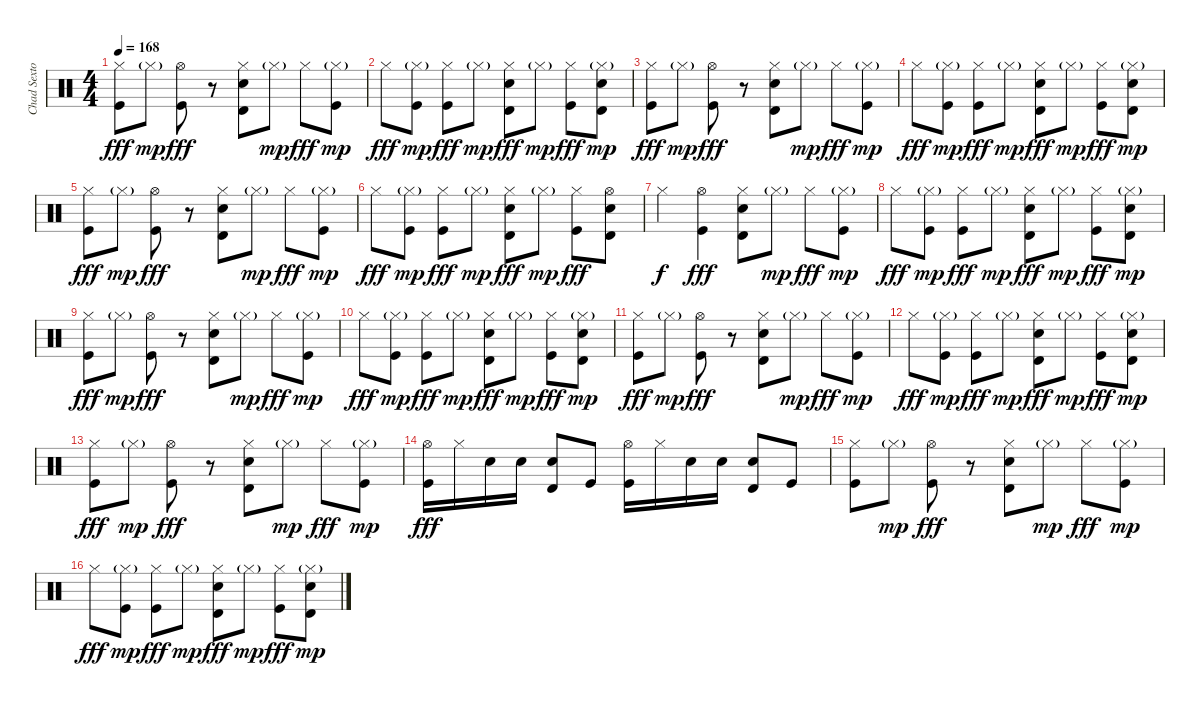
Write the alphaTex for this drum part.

\track ("Chad Sexton" "Chad Sexto") {instrument percussion}
\staff {score}
\articulation defaults
\ts (4 4)
\tempo 168
\clef neutral
\ks c
("Kick (hit)" "Hi-Hat (closed)").8{dy fff} "Hi-Hat (closed)"{g}.8{dy mp} ("Kick (hit)" "Hi-Hat (open)").8{dy fff} r.8 ("Electric Snare (hit)" "Timbale high (hit)" "Hi-Hat (closed)").8 "Hi-Hat (closed)"{g}.8{dy mp} "Hi-Hat (closed)".8{dy fff} ("Kick (hit)" "Hi-Hat (closed)"{g}).8{dy mp} |
"Hi-Hat (closed)".8{dy fff} ("Kick (hit)" "Hi-Hat (closed)"{g}).8{dy mp} ("Kick (hit)" "Hi-Hat (closed)").8{dy fff} "Hi-Hat (closed)"{g}.8{dy mp} ("Electric Snare (hit)" "Timbale high (hit)" "Hi-Hat (closed)").8{dy fff} "Hi-Hat (closed)"{g}.8{dy mp} ("Kick (hit)" "Hi-Hat (closed)").8{dy fff} ("Electric Snare (hit)" "Timbale high (hit)" "Hi-Hat (closed)"{g}).8{dy mp} |
("Kick (hit)" "Hi-Hat (closed)").8{dy fff} "Hi-Hat (closed)"{g}.8{dy mp} ("Kick (hit)" "Hi-Hat (open)").8{dy fff} r.8 ("Electric Snare (hit)" "Timbale high (hit)" "Hi-Hat (closed)").8 "Hi-Hat (closed)"{g}.8{dy mp} "Hi-Hat (closed)".8{dy fff} ("Kick (hit)" "Hi-Hat (closed)"{g}).8{dy mp} |
"Hi-Hat (closed)".8{dy fff} ("Kick (hit)" "Hi-Hat (closed)"{g}).8{dy mp} ("Kick (hit)" "Hi-Hat (closed)").8{dy fff} "Hi-Hat (closed)"{g}.8{dy mp} ("Electric Snare (hit)" "Timbale high (hit)" "Hi-Hat (closed)").8{dy fff} "Hi-Hat (closed)"{g}.8{dy mp} ("Kick (hit)" "Hi-Hat (closed)").8{dy fff} ("Electric Snare (hit)" "Timbale high (hit)" "Hi-Hat (closed)"{g}).8{dy mp} |
("Kick (hit)" "Hi-Hat (closed)").8{dy fff} "Hi-Hat (closed)"{g}.8{dy mp} ("Kick (hit)" "Hi-Hat (open)").8{dy fff} r.8 ("Electric Snare (hit)" "Timbale high (hit)" "Hi-Hat (closed)").8 "Hi-Hat (closed)"{g}.8{dy mp} "Hi-Hat (closed)".8{dy fff} ("Kick (hit)" "Hi-Hat (closed)"{g}).8{dy mp} |
"Hi-Hat (closed)".8{dy fff} ("Kick (hit)" "Hi-Hat (closed)"{g}).8{dy mp} ("Kick (hit)" "Hi-Hat (closed)").8{dy fff} "Hi-Hat (closed)"{g}.8{dy mp} ("Electric Snare (hit)" "Timbale high (hit)" "Hi-Hat (closed)").8{dy fff} "Hi-Hat (closed)"{g}.8{dy mp} ("Kick (hit)" "Hi-Hat (closed)").8{dy fff} ("Electric Snare (hit)" "Timbale high (hit)" "Hi-Hat (open)").8 |
"Hi-Hat (closed)".4{dy f} ("Kick (hit)" "Hi-Hat (open)").4{dy fff} ("Electric Snare (hit)" "Timbale high (hit)" "Hi-Hat (closed)").8 "Hi-Hat (closed)"{g}.8{dy mp} "Hi-Hat (closed)".8{dy fff} ("Kick (hit)" "Hi-Hat (closed)"{g}).8{dy mp} |
"Hi-Hat (closed)".8{dy fff} ("Kick (hit)" "Hi-Hat (closed)"{g}).8{dy mp} ("Kick (hit)" "Hi-Hat (closed)").8{dy fff} "Hi-Hat (closed)"{g}.8{dy mp} ("Electric Snare (hit)" "Timbale high (hit)" "Hi-Hat (closed)").8{dy fff} "Hi-Hat (closed)"{g}.8{dy mp} ("Kick (hit)" "Hi-Hat (closed)").8{dy fff} ("Electric Snare (hit)" "Timbale high (hit)" "Hi-Hat (closed)"{g}).8{dy mp} |
("Kick (hit)" "Hi-Hat (closed)").8{dy fff} "Hi-Hat (closed)"{g}.8{dy mp} ("Kick (hit)" "Hi-Hat (open)").8{dy fff} r.8 ("Electric Snare (hit)" "Timbale high (hit)" "Hi-Hat (closed)").8 "Hi-Hat (closed)"{g}.8{dy mp} "Hi-Hat (closed)".8{dy fff} ("Kick (hit)" "Hi-Hat (closed)"{g}).8{dy mp} |
"Hi-Hat (closed)".8{dy fff} ("Kick (hit)" "Hi-Hat (closed)"{g}).8{dy mp} ("Kick (hit)" "Hi-Hat (closed)").8{dy fff} "Hi-Hat (closed)"{g}.8{dy mp} ("Electric Snare (hit)" "Timbale high (hit)" "Hi-Hat (closed)").8{dy fff} "Hi-Hat (closed)"{g}.8{dy mp} ("Kick (hit)" "Hi-Hat (closed)").8{dy fff} ("Electric Snare (hit)" "Timbale high (hit)" "Hi-Hat (closed)"{g}).8{dy mp} |
("Kick (hit)" "Hi-Hat (closed)").8{dy fff} "Hi-Hat (closed)"{g}.8{dy mp} ("Kick (hit)" "Hi-Hat (open)").8{dy fff} r.8 ("Electric Snare (hit)" "Timbale high (hit)" "Hi-Hat (closed)").8 "Hi-Hat (closed)"{g}.8{dy mp} "Hi-Hat (closed)".8{dy fff} ("Kick (hit)" "Hi-Hat (closed)"{g}).8{dy mp} |
"Hi-Hat (closed)".8{dy fff} ("Kick (hit)" "Hi-Hat (closed)"{g}).8{dy mp} ("Kick (hit)" "Hi-Hat (closed)").8{dy fff} "Hi-Hat (closed)"{g}.8{dy mp} ("Electric Snare (hit)" "Timbale high (hit)" "Hi-Hat (closed)").8{dy fff} "Hi-Hat (closed)"{g}.8{dy mp} ("Kick (hit)" "Hi-Hat (closed)").8{dy fff} ("Electric Snare (hit)" "Timbale high (hit)" "Hi-Hat (closed)"{g}).8{dy mp} |
("Kick (hit)" "Hi-Hat (closed)").8{dy fff} "Hi-Hat (closed)"{g}.8{dy mp} ("Kick (hit)" "Hi-Hat (open)").8{dy fff} r.8 ("Electric Snare (hit)" "Timbale high (hit)" "Hi-Hat (closed)").8 "Hi-Hat (closed)"{g}.8{dy mp} "Hi-Hat (closed)".8{dy fff} ("Kick (hit)" "Hi-Hat (closed)"{g}).8{dy mp} |
("Hi-Hat (open)" "Kick (hit)").16{dy fff} "Hi-Hat (closed)".16 "Electric Snare (hit)".16 "Electric Snare (hit)".16 ("Electric Snare (hit)" "Timbale high (hit)").8 "Kick (hit)".8 ("Hi-Hat (open)" "Kick (hit)").16 "Hi-Hat (closed)".16 "Electric Snare (hit)".16 "Electric Snare (hit)".16 ("Electric Snare (hit)" "Timbale high (hit)").8 "Kick (hit)".8 |
("Kick (hit)" "Hi-Hat (closed)").8 "Hi-Hat (closed)"{g}.8{dy mp} ("Kick (hit)" "Hi-Hat (open)").8{dy fff} r.8 ("Electric Snare (hit)" "Timbale high (hit)" "Hi-Hat (closed)").8 "Hi-Hat (closed)"{g}.8{dy mp} "Hi-Hat (closed)".8{dy fff} ("Kick (hit)" "Hi-Hat (closed)"{g}).8{dy mp} |
"Hi-Hat (closed)".8{dy fff} ("Kick (hit)" "Hi-Hat (closed)"{g}).8{dy mp} ("Kick (hit)" "Hi-Hat (closed)").8{dy fff} "Hi-Hat (closed)"{g}.8{dy mp} ("Electric Snare (hit)" "Timbale high (hit)" "Hi-Hat (closed)").8{dy fff} "Hi-Hat (closed)"{g}.8{dy mp} ("Kick (hit)" "Hi-Hat (closed)").8{dy fff} ("Timbale high (hit)" "Electric Snare (hit)" "Hi-Hat (closed)"{g}).8{dy mp}
